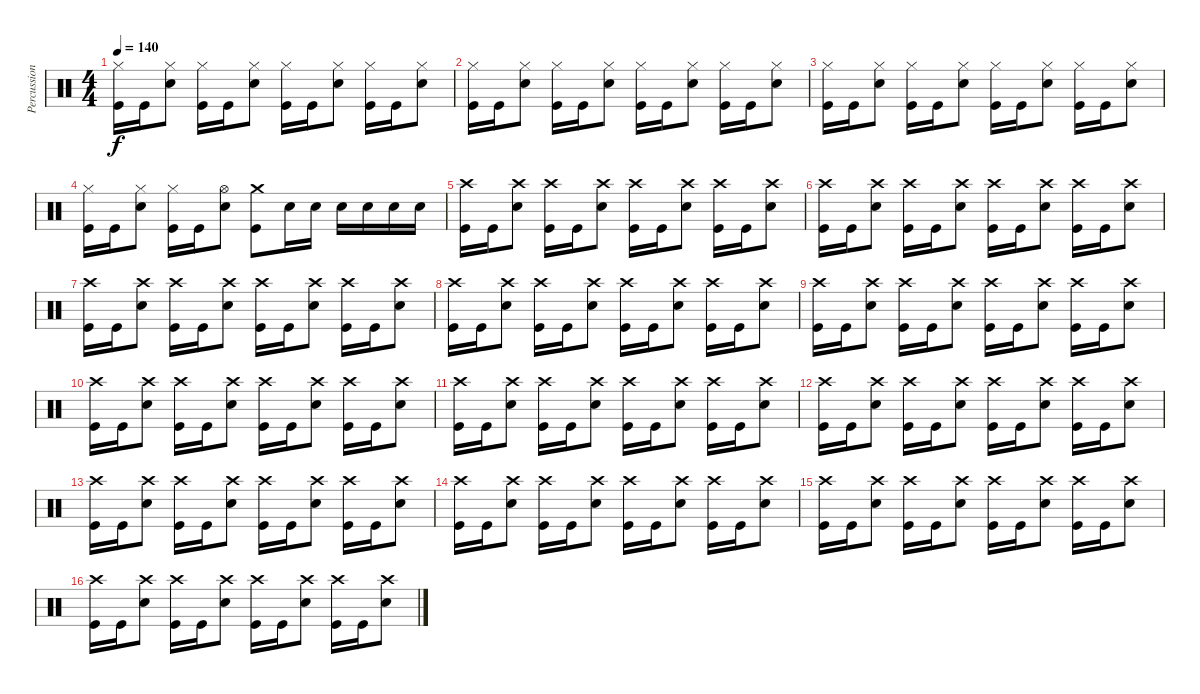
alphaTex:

\track ("Percussion" "Percussion") {instrument percussion}
\staff {score}
\articulation defaults
\ts (4 4)
\tempo 140
\clef neutral
\ks c
("Hi-Hat (closed)" "Kick (hit)").16{dy f} "Kick (hit)".16 ("Hi-Hat (closed)" "Electric Snare (hit)").8 ("Hi-Hat (closed)" "Kick (hit)").16 "Kick (hit)".16 ("Hi-Hat (closed)" "Electric Snare (hit)").8 ("Hi-Hat (closed)" "Kick (hit)").16 "Kick (hit)".16 ("Hi-Hat (closed)" "Electric Snare (hit)").8 ("Hi-Hat (closed)" "Kick (hit)").16 "Kick (hit)".16 ("Hi-Hat (closed)" "Electric Snare (hit)").8 |
("Hi-Hat (closed)" "Kick (hit)").16 "Kick (hit)".16 ("Hi-Hat (closed)" "Electric Snare (hit)").8 ("Hi-Hat (closed)" "Kick (hit)").16 "Kick (hit)".16 ("Hi-Hat (closed)" "Electric Snare (hit)").8 ("Hi-Hat (closed)" "Kick (hit)").16 "Kick (hit)".16 ("Hi-Hat (closed)" "Electric Snare (hit)").8 ("Hi-Hat (closed)" "Kick (hit)").16 "Kick (hit)".16 ("Hi-Hat (closed)" "Electric Snare (hit)").8 |
("Hi-Hat (closed)" "Kick (hit)").16 "Kick (hit)".16 ("Hi-Hat (closed)" "Electric Snare (hit)").8 ("Hi-Hat (closed)" "Kick (hit)").16 "Kick (hit)".16 ("Hi-Hat (closed)" "Electric Snare (hit)").8 ("Hi-Hat (closed)" "Kick (hit)").16 "Kick (hit)".16 ("Hi-Hat (closed)" "Electric Snare (hit)").8 ("Hi-Hat (closed)" "Kick (hit)").16 "Kick (hit)".16 ("Hi-Hat (closed)" "Electric Snare (hit)").8 |
("Hi-Hat (closed)" "Kick (hit)").16 "Kick (hit)".16 ("Hi-Hat (closed)" "Electric Snare (hit)").8 ("Hi-Hat (closed)" "Kick (hit)").16 "Kick (hit)".16 ("Hi-Hat (open)" "Electric Snare (hit)").8 ("Crash medium (hit)" "Kick (hit)").8 "Electric Snare (hit)".16 "Electric Snare (hit)".16 "Electric Snare (hit)".16 "Electric Snare (hit)".16 "Electric Snare (hit)".16 "Electric Snare (hit)".16 |
("Crash high (hit)" "Kick (hit)").16 "Kick (hit)".16 ("Crash high (hit)" "Snare (hit) 2").8 ("Crash high (hit)" "Kick (hit)").16 "Kick (hit)".16 ("Crash high (hit)" "Snare (hit) 2").8 ("Crash high (hit)" "Kick (hit)").16 "Kick (hit)".16 ("Crash high (hit)" "Electric Snare (hit)").8 ("Crash high (hit)" "Kick (hit)").16 "Kick (hit)".16 ("Crash high (hit)" "Electric Snare (hit)").8 |
("Crash high (hit)" "Kick (hit)").16 "Kick (hit)".16 ("Crash high (hit)" "Snare (hit) 2").8 ("Crash high (hit)" "Kick (hit)").16 "Kick (hit)".16 ("Crash high (hit)" "Snare (hit) 2").8 ("Crash high (hit)" "Kick (hit)").16 "Kick (hit)".16 ("Crash high (hit)" "Electric Snare (hit)").8 ("Crash high (hit)" "Kick (hit)").16 "Kick (hit)".16 ("Crash high (hit)" "Electric Snare (hit)").8 |
("Crash high (hit)" "Kick (hit)").16 "Kick (hit)".16 ("Crash high (hit)" "Snare (hit) 2").8 ("Crash high (hit)" "Kick (hit)").16 "Kick (hit)".16 ("Crash high (hit)" "Snare (hit) 2").8 ("Crash high (hit)" "Kick (hit)").16 "Kick (hit)".16 ("Crash high (hit)" "Electric Snare (hit)").8 ("Crash high (hit)" "Kick (hit)").16 "Kick (hit)".16 ("Crash high (hit)" "Electric Snare (hit)").8 |
("Crash high (hit)" "Kick (hit)").16 "Kick (hit)".16 ("Crash high (hit)" "Snare (hit) 2").8 ("Crash high (hit)" "Kick (hit)").16 "Kick (hit)".16 ("Crash high (hit)" "Snare (hit) 2").8 ("Crash high (hit)" "Kick (hit)").16 "Kick (hit)".16 ("Crash high (hit)" "Electric Snare (hit)").8 ("Crash high (hit)" "Kick (hit)").16 "Kick (hit)".16 ("Crash high (hit)" "Electric Snare (hit)").8 |
("Crash high (hit)" "Kick (hit)").16 "Kick (hit)".16 ("Crash high (hit)" "Snare (hit) 2").8 ("Crash high (hit)" "Kick (hit)").16 "Kick (hit)".16 ("Crash high (hit)" "Snare (hit) 2").8 ("Crash high (hit)" "Kick (hit)").16 "Kick (hit)".16 ("Crash high (hit)" "Electric Snare (hit)").8 ("Crash high (hit)" "Kick (hit)").16 "Kick (hit)".16 ("Crash high (hit)" "Electric Snare (hit)").8 |
("Crash high (hit)" "Kick (hit)").16 "Kick (hit)".16 ("Crash high (hit)" "Snare (hit) 2").8 ("Crash high (hit)" "Kick (hit)").16 "Kick (hit)".16 ("Crash high (hit)" "Snare (hit) 2").8 ("Crash high (hit)" "Kick (hit)").16 "Kick (hit)".16 ("Crash high (hit)" "Electric Snare (hit)").8 ("Crash high (hit)" "Kick (hit)").16 "Kick (hit)".16 ("Crash high (hit)" "Electric Snare (hit)").8 |
("Crash high (hit)" "Kick (hit)").16 "Kick (hit)".16 ("Crash high (hit)" "Snare (hit) 2").8 ("Crash high (hit)" "Kick (hit)").16 "Kick (hit)".16 ("Crash high (hit)" "Snare (hit) 2").8 ("Crash high (hit)" "Kick (hit)").16 "Kick (hit)".16 ("Crash high (hit)" "Electric Snare (hit)").8 ("Crash high (hit)" "Kick (hit)").16 "Kick (hit)".16 ("Crash high (hit)" "Electric Snare (hit)").8 |
("Crash high (hit)" "Kick (hit)").16 "Kick (hit)".16 ("Crash high (hit)" "Snare (hit) 2").8 ("Crash high (hit)" "Kick (hit)").16 "Kick (hit)".16 ("Crash high (hit)" "Snare (hit) 2").8 ("Crash high (hit)" "Kick (hit)").16 "Kick (hit)".16 ("Crash high (hit)" "Electric Snare (hit)").8 ("Crash high (hit)" "Kick (hit)").16 "Kick (hit)".16 ("Crash high (hit)" "Electric Snare (hit)").8 |
("Crash high (hit)" "Kick (hit)").16 "Kick (hit)".16 ("Crash high (hit)" "Snare (hit) 2").8 ("Crash high (hit)" "Kick (hit)").16 "Kick (hit)".16 ("Crash high (hit)" "Snare (hit) 2").8 ("Crash high (hit)" "Kick (hit)").16 "Kick (hit)".16 ("Crash high (hit)" "Electric Snare (hit)").8 ("Crash high (hit)" "Kick (hit)").16 "Kick (hit)".16 ("Crash high (hit)" "Electric Snare (hit)").8 |
("Crash high (hit)" "Kick (hit)").16 "Kick (hit)".16 ("Crash high (hit)" "Electric Snare (hit)").8 ("Crash high (hit)" "Kick (hit)").16 "Kick (hit)".16 ("Crash high (hit)" "Electric Snare (hit)").8 ("Crash high (hit)" "Kick (hit)").16 "Kick (hit)".16 ("Crash high (hit)" "Electric Snare (hit)").8 ("Crash high (hit)" "Kick (hit)").16 "Kick (hit)".16 ("Crash high (hit)" "Electric Snare (hit)").8 |
("Crash high (hit)" "Kick (hit)").16 "Kick (hit)".16 ("Crash high (hit)" "Electric Snare (hit)").8 ("Crash high (hit)" "Kick (hit)").16 "Kick (hit)".16 ("Crash high (hit)" "Electric Snare (hit)").8 ("Crash high (hit)" "Kick (hit)").16 "Kick (hit)".16 ("Crash high (hit)" "Electric Snare (hit)").8 ("Crash high (hit)" "Kick (hit)").16 "Kick (hit)".16 ("Crash high (hit)" "Electric Snare (hit)").8 |
("Crash high (hit)" "Kick (hit)").16 "Kick (hit)".16 ("Crash high (hit)" "Electric Snare (hit)").8 ("Crash high (hit)" "Kick (hit)").16 "Kick (hit)".16 ("Crash high (hit)" "Electric Snare (hit)").8 ("Crash high (hit)" "Kick (hit)").16 "Kick (hit)".16 ("Crash high (hit)" "Electric Snare (hit)").8 ("Crash high (hit)" "Kick (hit)").16 "Kick (hit)".16 ("Crash high (hit)" "Electric Snare (hit)").8
